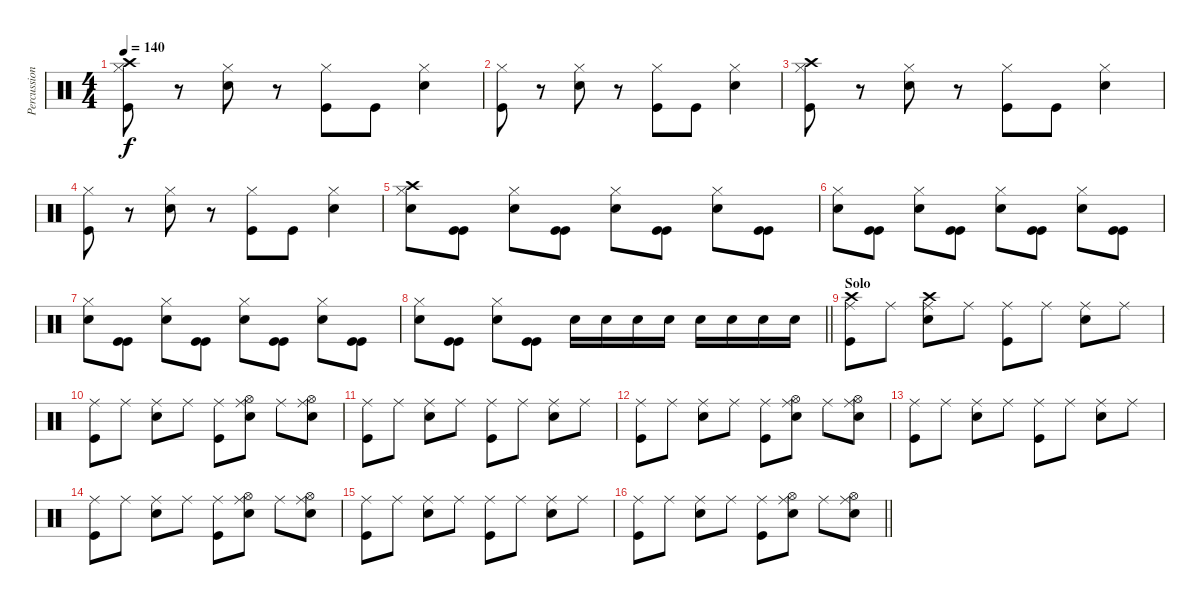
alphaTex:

\track ("Percussioni" "Percussion") {instrument percussion}
\staff {score}
\articulation defaults
\ts (4 4)
\tempo 140
\clef neutral
\ks c
("Crash high (hit)" "Hi-Hat (closed)" "Kick (hit)").8{dy f} r.8 ("Hi-Hat (closed)" "Snare (hit) 2").8 r.8 ("Hi-Hat (closed)" "Kick (hit)").8 "Kick (hit)".8 ("Hi-Hat (closed)" "Snare (hit) 2").4 |
("Hi-Hat (closed)" "Kick (hit)").8 r.8 ("Hi-Hat (closed)" "Snare (hit) 2").8 r.8 ("Hi-Hat (closed)" "Kick (hit)").8 "Kick (hit)".8 ("Hi-Hat (closed)" "Snare (hit) 2").4 |
("Crash high (hit)" "Hi-Hat (closed)" "Kick (hit)").8 r.8 ("Hi-Hat (closed)" "Snare (hit) 2").8 r.8 ("Hi-Hat (closed)" "Kick (hit)").8 "Kick (hit)".8 ("Hi-Hat (closed)" "Snare (hit) 2").4 |
("Hi-Hat (closed)" "Kick (hit)").8 r.8 ("Hi-Hat (closed)" "Snare (hit) 2").8 r.8 ("Hi-Hat (closed)" "Kick (hit)").8 "Kick (hit)".8 ("Hi-Hat (closed)" "Snare (hit) 2").4 |
("Crash high (hit)" "Hi-Hat (closed)" "Snare (hit) 2").8 ("Kick (hit)" "Kick (hit)").8 ("Hi-Hat (closed)" "Snare (hit) 2").8 ("Kick (hit)" "Kick (hit)").8 ("Hi-Hat (closed)" "Snare (hit) 2").8 ("Kick (hit)" "Kick (hit)").8 ("Hi-Hat (closed)" "Snare (hit) 2").8 ("Kick (hit)" "Kick (hit)").8 |
("Hi-Hat (closed)" "Snare (hit) 2").8 ("Kick (hit)" "Kick (hit)").8 ("Hi-Hat (closed)" "Snare (hit) 2").8 ("Kick (hit)" "Kick (hit)").8 ("Hi-Hat (closed)" "Snare (hit) 2").8 ("Kick (hit)" "Kick (hit)").8 ("Hi-Hat (closed)" "Snare (hit) 2").8 ("Kick (hit)" "Kick (hit)").8 |
("Hi-Hat (closed)" "Snare (hit) 2").8 ("Kick (hit)" "Kick (hit)").8 ("Hi-Hat (closed)" "Snare (hit) 2").8 ("Kick (hit)" "Kick (hit)").8 ("Hi-Hat (closed)" "Snare (hit) 2").8 ("Kick (hit)" "Kick (hit)").8 ("Hi-Hat (closed)" "Snare (hit) 2").8 ("Kick (hit)" "Kick (hit)").8 |
\barLineRight lightlight
("Hi-Hat (closed)" "Snare (hit) 2").8 ("Kick (hit)" "Kick (hit)").8 ("Hi-Hat (closed)" "Snare (hit) 2").8 ("Kick (hit)" "Kick (hit)").8 "Snare (hit) 2".16 "Snare (hit) 2".16 "Snare (hit) 2".16 "Snare (hit) 2".16 "Snare (hit) 2".16 "Snare (hit) 2".16 "Snare (hit) 2".16 "Snare (hit) 2".16 |
\section ("" "Solo")
("Ride (middle)" "Crash high (hit)" "Kick (hit)").8 "Ride (middle)".8 ("Ride (middle)" "Crash high (hit)" "Snare (hit) 2").8 "Ride (middle)".8 ("Ride (middle)" "Kick (hit)").8 "Ride (middle)".8 ("Ride (middle)" "Snare (hit) 2").8 "Ride (middle)".8 |
("Ride (middle)" "Kick (hit)").8 "Ride (middle)".8 ("Ride (middle)" "Snare (hit) 2").8 "Ride (middle)".8 ("Ride (middle)" "Kick (hit)").8 ("Ride (middle)" "Snare (hit) 2" "Hi-Hat (open)").8 "Ride (middle)".8 ("Ride (middle)" "Snare (hit) 2" "Hi-Hat (open)").8 |
("Ride (middle)" "Kick (hit)").8 "Ride (middle)".8 ("Ride (middle)" "Snare (hit) 2").8 "Ride (middle)".8 ("Ride (middle)" "Kick (hit)").8 "Ride (middle)".8 ("Ride (middle)" "Snare (hit) 2").8 "Ride (middle)".8 |
("Ride (middle)" "Kick (hit)").8 "Ride (middle)".8 ("Ride (middle)" "Snare (hit) 2").8 "Ride (middle)".8 ("Ride (middle)" "Kick (hit)").8 ("Ride (middle)" "Snare (hit) 2" "Hi-Hat (open)").8 "Ride (middle)".8 ("Ride (middle)" "Snare (hit) 2" "Hi-Hat (open)").8 |
("Ride (middle)" "Kick (hit)").8 "Ride (middle)".8 ("Ride (middle)" "Snare (hit) 2").8 "Ride (middle)".8 ("Ride (middle)" "Kick (hit)").8 "Ride (middle)".8 ("Ride (middle)" "Snare (hit) 2").8 "Ride (middle)".8 |
("Ride (middle)" "Kick (hit)").8 "Ride (middle)".8 ("Ride (middle)" "Snare (hit) 2").8 "Ride (middle)".8 ("Ride (middle)" "Kick (hit)").8 ("Ride (middle)" "Snare (hit) 2" "Hi-Hat (open)").8 "Ride (middle)".8 ("Ride (middle)" "Snare (hit) 2" "Hi-Hat (open)").8 |
("Ride (middle)" "Kick (hit)").8 "Ride (middle)".8 ("Ride (middle)" "Snare (hit) 2").8 "Ride (middle)".8 ("Ride (middle)" "Kick (hit)").8 "Ride (middle)".8 ("Ride (middle)" "Snare (hit) 2").8 "Ride (middle)".8 |
\barLineRight lightlight
("Ride (middle)" "Kick (hit)").8 "Ride (middle)".8 ("Ride (middle)" "Snare (hit) 2").8 "Ride (middle)".8 ("Ride (middle)" "Kick (hit)").8 ("Ride (middle)" "Snare (hit) 2" "Hi-Hat (open)").8 "Ride (middle)".8 ("Ride (middle)" "Snare (hit) 2" "Hi-Hat (open)").8
